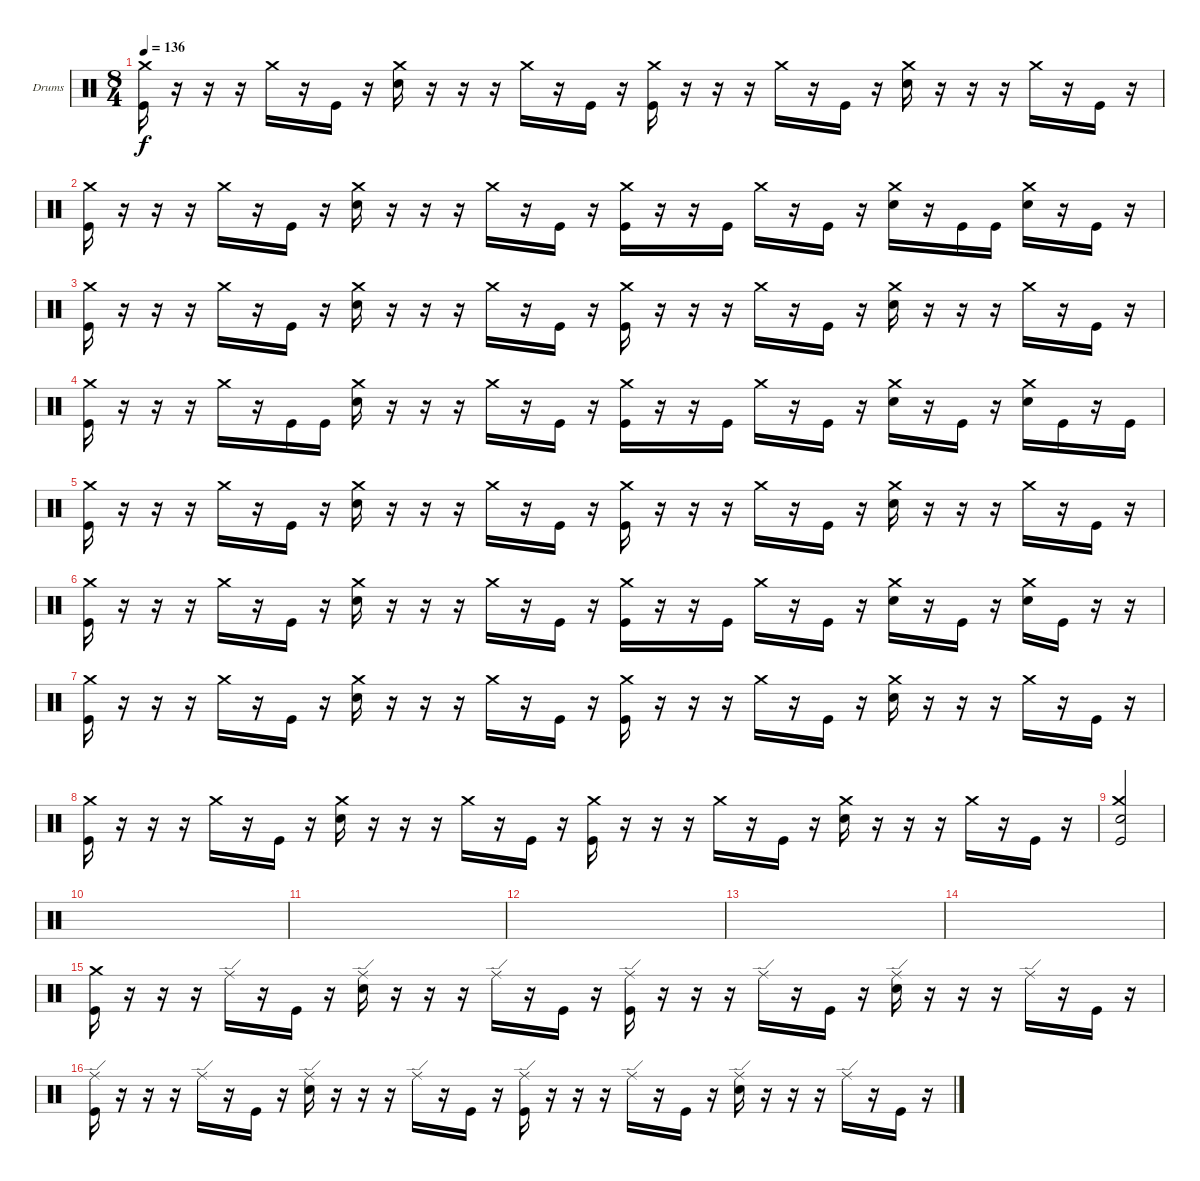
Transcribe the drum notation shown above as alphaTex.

\defaultSystemsLayout 4
\bracketExtendMode groupsimilarinstruments
\firstSystemTrackNameOrientation horizontal
\otherSystemsTrackNameOrientation horizontal
\track ("Drumkit" "Drums") {instrument percussion}
\staff {score}
\articulation defaults
\ts (8 4)
\tempo 136
\clef neutral
\ks c
("Kick (hit)" "Crash medium (hit)").16{dy f} r.16 r.16 r.16 "Crash medium (hit)".16 r.16 "Kick (hit)".16 r.16 ("Snare (hit) 2" "Crash medium (hit)").16 r.16 r.16 r.16 "Crash medium (hit)".16 r.16 "Kick (hit)".16 r.16 ("Kick (hit)" "Crash medium (hit)").16 r.16 r.16 r.16 "Crash medium (hit)".16 r.16 "Kick (hit)".16 r.16 ("Snare (hit) 2" "Crash medium (hit)").16 r.16 r.16 r.16 "Crash medium (hit)".16 r.16 "Kick (hit)".16 r.16 |
("Kick (hit)" "Crash medium (hit)").16 r.16 r.16 r.16 "Crash medium (hit)".16 r.16 "Kick (hit)".16 r.16 ("Snare (hit) 2" "Crash medium (hit)").16 r.16 r.16 r.16 "Crash medium (hit)".16 r.16 "Kick (hit)".16 r.16 ("Kick (hit)" "Crash medium (hit)").16 r.16 r.16 "Kick (hit)".16 "Crash medium (hit)".16 r.16 "Kick (hit)".16 r.16 ("Snare (hit) 2" "Crash medium (hit)").16 r.16 "Kick (hit)".16 "Kick (hit)".16 ("Crash medium (hit)" "Snare (hit) 2").16 r.16 "Kick (hit)".16 r.16 |
("Kick (hit)" "Crash medium (hit)").16 r.16 r.16 r.16 "Crash medium (hit)".16 r.16 "Kick (hit)".16 r.16 ("Snare (hit) 2" "Crash medium (hit)").16 r.16 r.16 r.16 "Crash medium (hit)".16 r.16 "Kick (hit)".16 r.16 ("Kick (hit)" "Crash medium (hit)").16 r.16 r.16 r.16 "Crash medium (hit)".16 r.16 "Kick (hit)".16 r.16 ("Snare (hit) 2" "Crash medium (hit)").16 r.16 r.16 r.16 "Crash medium (hit)".16 r.16 "Kick (hit)".16 r.16 |
("Kick (hit)" "Crash medium (hit)").16 r.16 r.16 r.16 "Crash medium (hit)".16 r.16 "Kick (hit)".16 "Kick (hit)".16 ("Snare (hit) 2" "Crash medium (hit)").16 r.16 r.16 r.16 "Crash medium (hit)".16 r.16 "Kick (hit)".16 r.16 ("Kick (hit)" "Crash medium (hit)").16 r.16 r.16 "Kick (hit)".16 "Crash medium (hit)".16 r.16 "Kick (hit)".16 r.16 ("Snare (hit) 2" "Crash medium (hit)").16 r.16 "Kick (hit)".16 r.16 ("Crash medium (hit)" "Snare (hit) 2").16 "Kick (hit)".16 r.16 "Kick (hit)".16 |
("Kick (hit)" "Crash medium (hit)").16 r.16 r.16 r.16 "Crash medium (hit)".16 r.16 "Kick (hit)".16 r.16 ("Snare (hit) 2" "Crash medium (hit)").16 r.16 r.16 r.16 "Crash medium (hit)".16 r.16 "Kick (hit)".16 r.16 ("Kick (hit)" "Crash medium (hit)").16 r.16 r.16 r.16 "Crash medium (hit)".16 r.16 "Kick (hit)".16 r.16 ("Snare (hit) 2" "Crash medium (hit)").16 r.16 r.16 r.16 "Crash medium (hit)".16 r.16 "Kick (hit)".16 r.16 |
("Kick (hit)" "Crash medium (hit)").16 r.16 r.16 r.16 "Crash medium (hit)".16 r.16 "Kick (hit)".16 r.16 ("Snare (hit) 2" "Crash medium (hit)").16 r.16 r.16 r.16 "Crash medium (hit)".16 r.16 "Kick (hit)".16 r.16 ("Kick (hit)" "Crash medium (hit)").16 r.16 r.16 "Kick (hit)".16 "Crash medium (hit)".16 r.16 "Kick (hit)".16 r.16 ("Snare (hit) 2" "Crash medium (hit)").16 r.16 "Kick (hit)".16 r.16 ("Crash medium (hit)" "Snare (hit) 2").16 "Kick (hit)".16 r.16 r.16 |
("Kick (hit)" "Crash medium (hit)").16 r.16 r.16 r.16 "Crash medium (hit)".16 r.16 "Kick (hit)".16 r.16 ("Snare (hit) 2" "Crash medium (hit)").16 r.16 r.16 r.16 "Crash medium (hit)".16 r.16 "Kick (hit)".16 r.16 ("Kick (hit)" "Crash medium (hit)").16 r.16 r.16 r.16 "Crash medium (hit)".16 r.16 "Kick (hit)".16 r.16 ("Snare (hit) 2" "Crash medium (hit)").16 r.16 r.16 r.16 "Crash medium (hit)".16 r.16 "Kick (hit)".16 r.16 |
("Kick (hit)" "Crash medium (hit)").16 r.16 r.16 r.16 "Crash medium (hit)".16 r.16 "Kick (hit)".16 r.16 ("Snare (hit) 2" "Crash medium (hit)").16 r.16 r.16 r.16 "Crash medium (hit)".16 r.16 "Kick (hit)".16 r.16 ("Kick (hit)" "Crash medium (hit)").16 r.16 r.16 r.16 "Crash medium (hit)".16 r.16 "Kick (hit)".16 r.16 ("Snare (hit) 2" "Crash medium (hit)").16 r.16 r.16 r.16 "Crash medium (hit)".16 r.16 "Kick (hit)".16 r.16 |
("Kick (hit)" "Snare (hit) 2" "Crash medium (hit)").2 |
|
|
|
|
|
("Kick (hit)" "Crash medium (hit)").16 r.16 r.16 r.16 "Ride (edge)".16 r.16 "Kick (hit)".16 r.16 ("Snare (hit) 2" "Ride (edge)").16 r.16 r.16 r.16 "Ride (edge)".16 r.16 "Kick (hit)".16 r.16 ("Kick (hit)" "Ride (edge)").16 r.16 r.16 r.16 "Ride (edge)".16 r.16 "Kick (hit)".16 r.16 ("Snare (hit) 2" "Ride (edge)").16 r.16 r.16 r.16 "Ride (edge)".16 r.16 "Kick (hit)".16 r.16 |
("Kick (hit)" "Ride (edge)").16 r.16 r.16 r.16 "Ride (edge)".16 r.16 "Kick (hit)".16 r.16 ("Snare (hit) 2" "Ride (edge)").16 r.16 r.16 r.16 "Ride (edge)".16 r.16 "Kick (hit)".16 r.16 ("Kick (hit)" "Ride (edge)").16 r.16 r.16 r.16 "Ride (edge)".16 r.16 "Kick (hit)".16 r.16 ("Snare (hit) 2" "Ride (edge)").16 r.16 r.16 r.16 "Ride (edge)".16 r.16 "Kick (hit)".16 r.16
